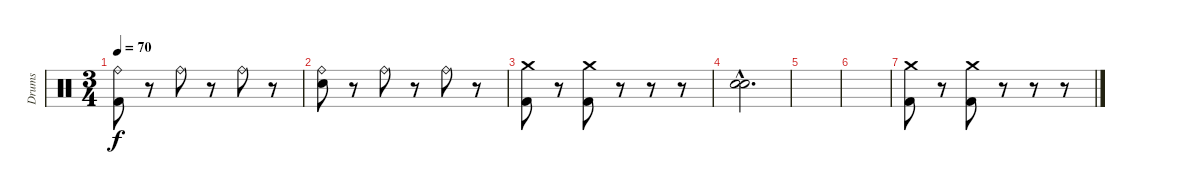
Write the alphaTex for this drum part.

\track ("Drums" "Drums") {instrument percussion}
\staff {score}
\articulation defaults
\ts (3 4)
\tempo 70
\clef neutral
\ks c
("Ride (bell)" "Kick (hit) 2").8{dy f} r.8 "Ride (bell)".8 r.8 "Ride (bell)".8 r.8 |
("Ride (bell)" "Snare (hit) 2").8 r.8 "Ride (bell)".8 r.8 "Ride (bell)".8 r.8 |
("Crash medium (hit)" "Kick (hit) 2").8 r.8 ("Crash medium (hit)" "Kick (hit) 2").8 r.8 r.8 r.8 |
("Snare (hit) 2"{hac} "Snare (hit) 2"{hac}).2{d bu 60} |
|
|
("Crash medium (hit)" "Kick (hit) 2").8 r.8 ("Crash medium (hit)" "Kick (hit) 2").8 r.8 r.8 r.8
